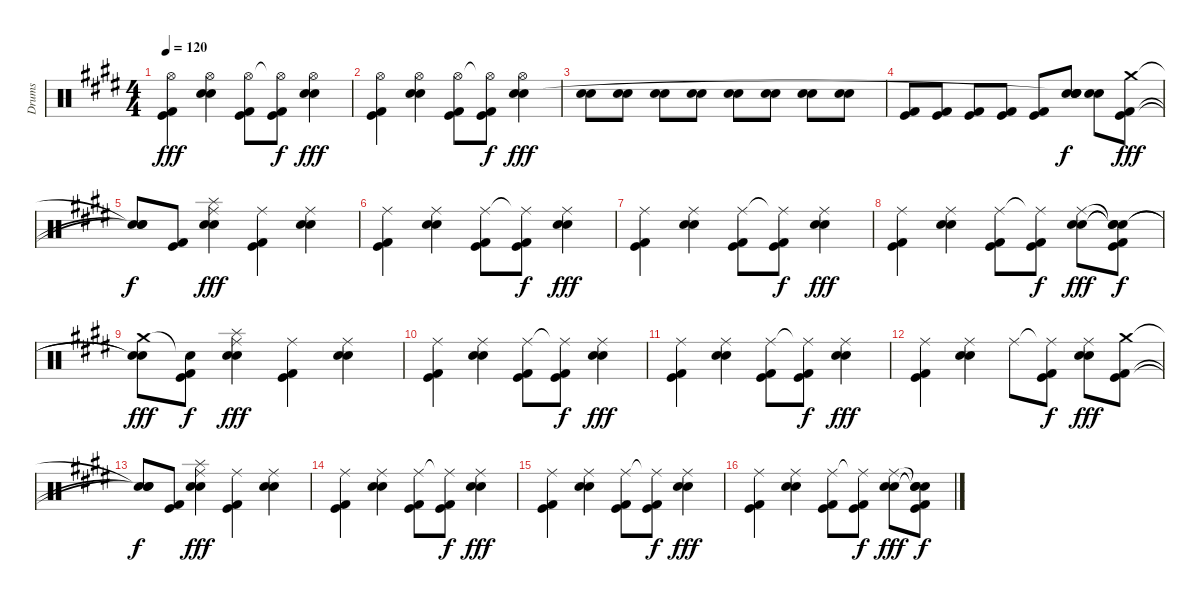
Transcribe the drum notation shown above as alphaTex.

\track ("Drums" "Drums") {instrument percussion}
\staff {score}
\articulation defaults
\ts (4 4)
\tempo 120
\clef neutral
\ks e
("Hi-Hat (open)" "Kick (hit)" "Kick (hit) 2").4{dy fff} ("Hi-Hat (open)" "Electric Snare (hit)" "Snare (hit) 2").4 ("Hi-Hat (open)" "Kick (hit)" "Kick (hit) 2").8 ("Hi-Hat (open)"{t} "Kick (hit)" "Kick (hit) 2").8{dy f} ("Hi-Hat (open)" "Electric Snare (hit)" "Snare (hit) 2").4{dy fff} |
("Hi-Hat (open)" "Kick (hit)" "Kick (hit) 2").4 ("Hi-Hat (open)" "Electric Snare (hit)" "Snare (hit) 2").4 ("Hi-Hat (open)" "Kick (hit)" "Kick (hit) 2").8 ("Hi-Hat (open)"{t} "Kick (hit)" "Kick (hit) 2").8{dy f} ("Hi-Hat (open)" "Electric Snare (hit)" "Snare (hit) 2").4{dy fff} |
("Electric Snare (hit)" "Snare (hit) 2").8 ("Electric Snare (hit)" "Snare (hit) 2").8 ("Electric Snare (hit)" "Snare (hit) 2").8 ("Electric Snare (hit)" "Snare (hit) 2").8 ("Electric Snare (hit)" "Snare (hit) 2").8 ("Electric Snare (hit)" "Snare (hit) 2").8 ("Electric Snare (hit)" "Snare (hit) 2").8 ("Electric Snare (hit)" "Snare (hit) 2").8 |
("Kick (hit)" "Kick (hit) 2").8 ("Kick (hit)" "Kick (hit) 2").8 ("Kick (hit)" "Kick (hit) 2").8 ("Kick (hit)" "Kick (hit) 2").8 ("Kick (hit)" "Kick (hit) 2").8 ("Electric Snare (hit)" "Snare (hit) 2" "Snare (hit)"{t} "Snare (hit)").8{dy f} ("Electric Snare (hit)" "Snare (hit) 2").8 ("Crash medium (hit)" "Kick (hit)" "Kick (hit) 2").8{dy fff} |
("Snare (hit)"{t} "Snare (hit)"{t} "Snare (hit)"{t}).8{dy f} ("Kick (hit)" "Kick (hit) 2").8 ("Ride (middle)" "Electric Snare (hit)" "Snare (hit) 2" "Splash (hit)").4{dy fff} ("Ride (middle)" "Kick (hit)" "Kick (hit) 2").4 ("Ride (middle)" "Electric Snare (hit)" "Snare (hit) 2").4 |
("Ride (middle)" "Kick (hit)" "Kick (hit) 2").4 ("Ride (middle)" "Electric Snare (hit)" "Snare (hit) 2").4 ("Ride (middle)" "Kick (hit)" "Kick (hit) 2").8 ("Ride (middle)"{t} "Kick (hit)" "Kick (hit) 2").8{dy f} ("Ride (middle)" "Electric Snare (hit)" "Snare (hit) 2").4{dy fff} |
("Ride (middle)" "Kick (hit)" "Kick (hit) 2").4 ("Ride (middle)" "Electric Snare (hit)" "Snare (hit) 2").4 ("Ride (middle)" "Kick (hit)" "Kick (hit) 2").8 ("Ride (middle)"{t} "Kick (hit)" "Kick (hit) 2").8{dy f} ("Ride (middle)" "Electric Snare (hit)" "Snare (hit) 2").4{dy fff} |
("Ride (middle)" "Kick (hit)" "Kick (hit) 2").4 ("Ride (middle)" "Electric Snare (hit)" "Snare (hit) 2").4 ("Ride (middle)" "Kick (hit)" "Kick (hit) 2").8 ("Ride (middle)"{t} "Kick (hit)" "Kick (hit) 2").8{dy f} ("Ride (middle)" "Electric Snare (hit)" "Snare (hit) 2").8{dy fff} ("Snare (hit)"{t} "Snare (hit)"{t} "Snare (hit)"{t} "Kick (hit)" "Kick (hit) 2").8{dy f} |
("Crash medium (hit)" "Snare (hit)"{t} "Snare (hit)"{t}).8{dy fff} ("Snare (hit)"{t} "Kick (hit)" "Kick (hit) 2").8{dy f} ("Ride (middle)" "Electric Snare (hit)" "Snare (hit) 2" "Splash (hit)").4{dy fff} ("Ride (middle)" "Kick (hit)" "Kick (hit) 2").4 ("Ride (middle)" "Electric Snare (hit)" "Snare (hit) 2").4 |
("Ride (middle)" "Kick (hit)" "Kick (hit) 2").4 ("Ride (middle)" "Electric Snare (hit)" "Snare (hit) 2").4 ("Ride (middle)" "Kick (hit)" "Kick (hit) 2").8 ("Ride (middle)"{t} "Kick (hit)" "Kick (hit) 2").8{dy f} ("Ride (middle)" "Electric Snare (hit)" "Snare (hit) 2").4{dy fff} |
("Ride (middle)" "Kick (hit)" "Kick (hit) 2").4 ("Ride (middle)" "Electric Snare (hit)" "Snare (hit) 2").4 ("Ride (middle)" "Kick (hit)" "Kick (hit) 2").8 ("Ride (middle)"{t} "Kick (hit)" "Kick (hit) 2").8{dy f} ("Ride (middle)" "Electric Snare (hit)" "Snare (hit) 2").4{dy fff} |
("Ride (middle)" "Kick (hit)" "Kick (hit) 2").4 ("Ride (middle)" "Electric Snare (hit)" "Snare (hit) 2").4 "Ride (middle)".8 ("Ride (middle)"{t} "Kick (hit)" "Kick (hit) 2").8{dy f} ("Ride (middle)" "Electric Snare (hit)" "Snare (hit) 2").8{dy fff} ("Crash medium (hit)" "Kick (hit)" "Kick (hit) 2").8 |
("Snare (hit)"{t} "Snare (hit)"{t} "Snare (hit)"{t}).8{dy f} ("Kick (hit)" "Kick (hit) 2").8 ("Ride (middle)" "Electric Snare (hit)" "Snare (hit) 2" "Splash (hit)").4{dy fff} ("Ride (middle)" "Kick (hit)" "Kick (hit) 2").4 ("Ride (middle)" "Electric Snare (hit)" "Snare (hit) 2").4 |
("Ride (middle)" "Kick (hit)" "Kick (hit) 2").4 ("Ride (middle)" "Electric Snare (hit)" "Snare (hit) 2").4 ("Ride (middle)" "Kick (hit)" "Kick (hit) 2").8 ("Ride (middle)"{t} "Kick (hit)" "Kick (hit) 2").8{dy f} ("Ride (middle)" "Electric Snare (hit)" "Snare (hit) 2").4{dy fff} |
("Ride (middle)" "Kick (hit)" "Kick (hit) 2").4 ("Ride (middle)" "Electric Snare (hit)" "Snare (hit) 2").4 ("Ride (middle)" "Kick (hit)" "Kick (hit) 2").8 ("Ride (middle)"{t} "Kick (hit)" "Kick (hit) 2").8{dy f} ("Ride (middle)" "Electric Snare (hit)" "Snare (hit) 2").4{dy fff} |
("Ride (middle)" "Kick (hit)" "Kick (hit) 2").4 ("Ride (middle)" "Electric Snare (hit)" "Snare (hit) 2").4 ("Ride (middle)" "Kick (hit)" "Kick (hit) 2").8 ("Ride (middle)"{t} "Kick (hit)" "Kick (hit) 2").8{dy f} ("Ride (middle)" "Electric Snare (hit)" "Snare (hit) 2").8{dy fff} ("Snare (hit)"{t} "Snare (hit)"{t} "Snare (hit)"{t} "Kick (hit)" "Kick (hit) 2").8{dy f}
